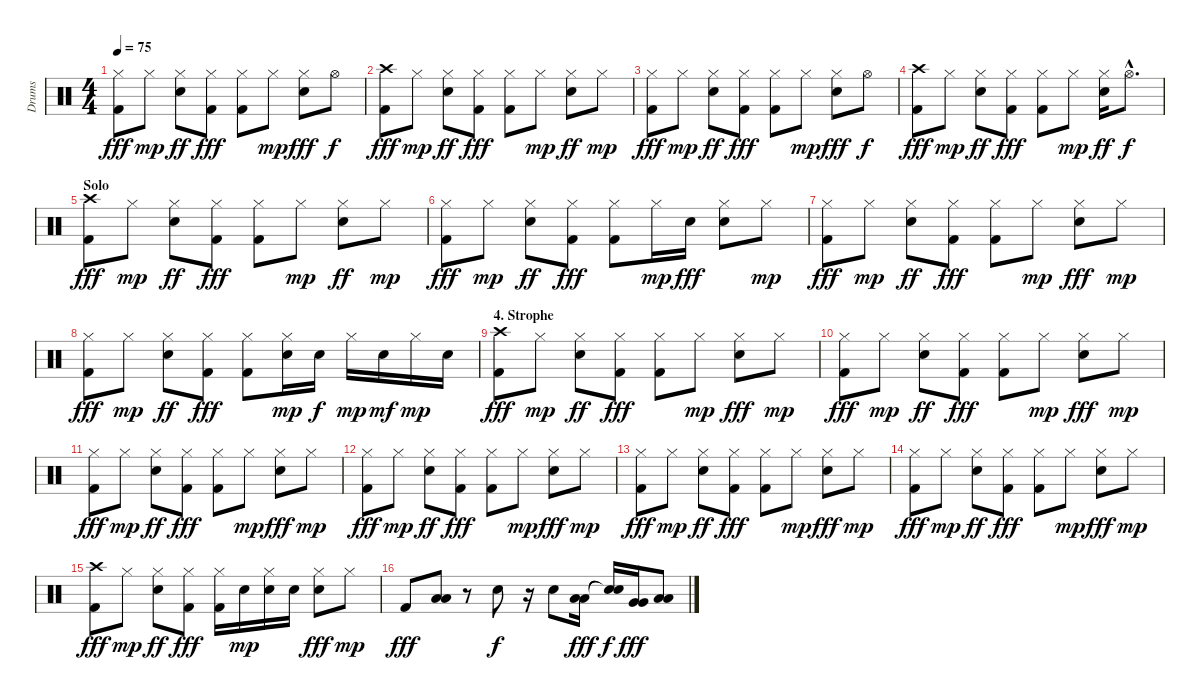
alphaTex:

\track ("Drums" "Drums") {instrument percussion}
\staff {score}
\articulation defaults
\ts (4 4)
\tempo 75
\clef neutral
\ks c
("Hi-Hat (closed)" "Kick (hit) 2").8{dy fff} "Hi-Hat (closed)".8{dy mp} ("Hi-Hat (closed)" "Electric Snare (hit)").8{dy ff} ("Hi-Hat (closed)" "Kick (hit) 2").8{dy fff} ("Hi-Hat (closed)" "Kick (hit) 2").8 "Hi-Hat (closed)".8{dy mp} ("Hi-Hat (closed)" "Electric Snare (hit)").8{dy fff} "Hi-Hat (open)".8{dy f} |
("Crash high (hit)" "Kick (hit) 2").8{dy fff} "Hi-Hat (closed)".8{dy mp} ("Hi-Hat (closed)" "Electric Snare (hit)").8{dy ff} ("Hi-Hat (closed)" "Kick (hit) 2").8{dy fff} ("Hi-Hat (closed)" "Kick (hit) 2").8 "Hi-Hat (closed)".8{dy mp} ("Hi-Hat (closed)" "Electric Snare (hit)").8{dy ff} "Hi-Hat (closed)".8{dy mp} |
("Hi-Hat (closed)" "Kick (hit) 2").8{dy fff} "Hi-Hat (closed)".8{dy mp} ("Hi-Hat (closed)" "Electric Snare (hit)").8{dy ff} ("Hi-Hat (closed)" "Kick (hit) 2").8{dy fff} ("Hi-Hat (closed)" "Kick (hit) 2").8 "Hi-Hat (closed)".8{dy mp} ("Hi-Hat (closed)" "Electric Snare (hit)").8{dy fff} "Hi-Hat (open)".8{dy f} |
("Crash high (hit)" "Kick (hit) 2").8{dy fff} "Hi-Hat (closed)".8{dy mp} ("Hi-Hat (closed)" "Electric Snare (hit)").8{dy ff} ("Hi-Hat (closed)" "Kick (hit) 2").8{dy fff} ("Hi-Hat (closed)" "Kick (hit) 2").8 "Hi-Hat (closed)".8{dy mp} ("Hi-Hat (closed)" "Electric Snare (hit)").16{dy ff} "Hi-Hat (open)"{hac}.8{d dy f} |
\section ("" "Solo")
("Crash high (hit)" "Kick (hit) 2").8{dy fff} "Hi-Hat (closed)".8{dy mp} ("Hi-Hat (closed)" "Electric Snare (hit)").8{dy ff} ("Hi-Hat (closed)" "Kick (hit) 2").8{dy fff} ("Hi-Hat (closed)" "Kick (hit) 2").8 "Hi-Hat (closed)".8{dy mp} ("Hi-Hat (closed)" "Electric Snare (hit)").8{dy ff} "Hi-Hat (closed)".8{dy mp} |
("Hi-Hat (closed)" "Kick (hit) 2").8{dy fff} "Hi-Hat (closed)".8{dy mp} ("Hi-Hat (closed)" "Electric Snare (hit)").8{dy ff} ("Hi-Hat (closed)" "Kick (hit) 2").8{dy fff} ("Hi-Hat (closed)" "Kick (hit) 2").8 "Hi-Hat (closed)".16{dy mp} "Electric Snare (hit)".16{dy fff} ("Hi-Hat (closed)" "Electric Snare (hit)").8 "Hi-Hat (closed)".8{dy mp} |
("Hi-Hat (closed)" "Kick (hit) 2").8{dy fff} "Hi-Hat (closed)".8{dy mp} ("Hi-Hat (closed)" "Electric Snare (hit)").8{dy ff} ("Hi-Hat (closed)" "Kick (hit) 2").8{dy fff} ("Hi-Hat (closed)" "Kick (hit) 2").8 "Hi-Hat (closed)".8{dy mp} ("Hi-Hat (closed)" "Electric Snare (hit)").8{dy fff} "Hi-Hat (closed)".8{dy mp} |
("Hi-Hat (closed)" "Kick (hit) 2").8{dy fff} "Hi-Hat (closed)".8{dy mp} ("Hi-Hat (closed)" "Electric Snare (hit)").8{dy ff} ("Hi-Hat (closed)" "Kick (hit) 2").8{dy fff} ("Hi-Hat (closed)" "Kick (hit) 2").8 ("Hi-Hat (closed)" "Electric Snare (hit)").16{dy mp} "Electric Snare (hit)".16{dy f} "Hi-Hat (closed)".16{dy mp} "Electric Snare (hit)".16{dy mf} "Hi-Hat (closed)".16{dy mp} "Electric Snare (hit)".16 |
\section ("" "4. Strophe")
("Crash high (hit)" "Kick (hit) 2").8{dy fff} "Hi-Hat (closed)".8{dy mp} ("Hi-Hat (closed)" "Electric Snare (hit)").8{dy ff} ("Hi-Hat (closed)" "Kick (hit) 2").8{dy fff} ("Hi-Hat (closed)" "Kick (hit) 2").8 "Hi-Hat (closed)".8{dy mp} ("Hi-Hat (closed)" "Electric Snare (hit)").8{dy fff} "Hi-Hat (closed)".8{dy mp} |
("Hi-Hat (closed)" "Kick (hit) 2").8{dy fff} "Hi-Hat (closed)".8{dy mp} ("Hi-Hat (closed)" "Electric Snare (hit)").8{dy ff} ("Hi-Hat (closed)" "Kick (hit) 2").8{dy fff} ("Hi-Hat (closed)" "Kick (hit) 2").8 "Hi-Hat (closed)".8{dy mp} ("Hi-Hat (closed)" "Electric Snare (hit)").8{dy fff} "Hi-Hat (closed)".8{dy mp} |
("Hi-Hat (closed)" "Kick (hit) 2").8{dy fff} "Hi-Hat (closed)".8{dy mp} ("Hi-Hat (closed)" "Electric Snare (hit)").8{dy ff} ("Hi-Hat (closed)" "Kick (hit) 2").8{dy fff} ("Hi-Hat (closed)" "Kick (hit) 2").8 "Hi-Hat (closed)".8{dy mp} ("Hi-Hat (closed)" "Electric Snare (hit)").8{dy fff} "Hi-Hat (closed)".8{dy mp} |
("Hi-Hat (closed)" "Kick (hit) 2").8{dy fff} "Hi-Hat (closed)".8{dy mp} ("Hi-Hat (closed)" "Electric Snare (hit)").8{dy ff} ("Hi-Hat (closed)" "Kick (hit) 2").8{dy fff} ("Hi-Hat (closed)" "Kick (hit) 2").8 "Hi-Hat (closed)".8{dy mp} ("Hi-Hat (closed)" "Electric Snare (hit)").8{dy fff} "Hi-Hat (closed)".8{dy mp} |
("Hi-Hat (closed)" "Kick (hit) 2").8{dy fff} "Hi-Hat (closed)".8{dy mp} ("Hi-Hat (closed)" "Electric Snare (hit)").8{dy ff} ("Hi-Hat (closed)" "Kick (hit) 2").8{dy fff} ("Hi-Hat (closed)" "Kick (hit) 2").8 "Hi-Hat (closed)".8{dy mp} ("Hi-Hat (closed)" "Electric Snare (hit)").8{dy fff} "Hi-Hat (closed)".8{dy mp} |
("Hi-Hat (closed)" "Kick (hit) 2").8{dy fff} "Hi-Hat (closed)".8{dy mp} ("Hi-Hat (closed)" "Electric Snare (hit)").8{dy ff} ("Hi-Hat (closed)" "Kick (hit) 2").8{dy fff} ("Hi-Hat (closed)" "Kick (hit) 2").8 "Hi-Hat (closed)".8{dy mp} ("Hi-Hat (closed)" "Electric Snare (hit)").8{dy fff} "Hi-Hat (closed)".8{dy mp} |
("Crash high (hit)" "Kick (hit) 2").8{dy fff} "Hi-Hat (closed)".8{dy mp} ("Hi-Hat (closed)" "Electric Snare (hit)").8{dy ff} ("Hi-Hat (closed)" "Kick (hit) 2").8{dy fff} ("Hi-Hat (closed)" "Kick (hit) 2").16 "Electric Snare (hit)".16{dy mp} ("Hi-Hat (closed)" "Electric Snare (hit)").16 "Electric Snare (hit)".16 ("Hi-Hat (closed)" "Electric Snare (hit)").8{dy fff} "Hi-Hat (closed)".8{dy mp} |
"Kick (hit) 2".8{dy fff} ("Low Tom (hit)" "Low Tom (hit)").8 r.8 "Electric Snare (hit)".8{dy f} r.16 "Electric Snare (hit)".8 ("Low Tom (hit)" "Low Tom (hit)").16{dy fff} ("Snare (hit)"{t} "Snare (hit)"{t}).16{dy f} ("Very Low Tom (hit)" "Very Low Tom (hit)").16{dy fff} ("Low Floor Tom (hit)" "Low Floor Tom (hit)").8
